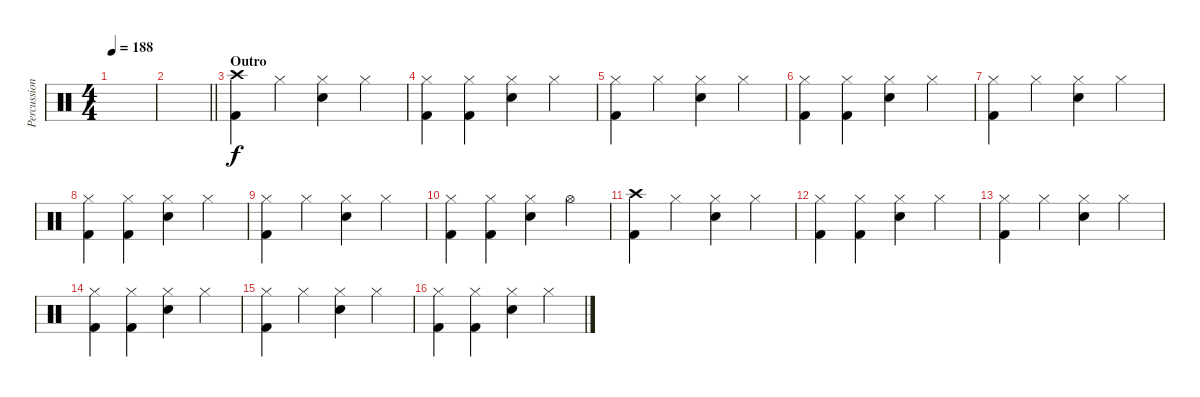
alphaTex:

\track ("Percussion" "Percussion") {instrument percussion}
\staff {score}
\articulation defaults
\ts (4 4)
\tempo 188
\clef neutral
\ks c
|
\barLineRight lightlight
|
\section ("" "Outro")
("Crash high (hit)" "Kick (hit) 2").4 "Hi-Hat (closed)".4 ("Hi-Hat (closed)" "Snare (hit) 2").4 "Hi-Hat (closed)".4 |
("Hi-Hat (closed)" "Kick (hit) 2").4 ("Hi-Hat (closed)" "Kick (hit) 2").4 ("Hi-Hat (closed)" "Snare (hit) 2").4 "Hi-Hat (closed)".4 |
("Hi-Hat (closed)" "Kick (hit) 2").4 "Hi-Hat (closed)".4 ("Hi-Hat (closed)" "Snare (hit) 2").4 "Hi-Hat (closed)".4 |
("Hi-Hat (closed)" "Kick (hit) 2").4 ("Hi-Hat (closed)" "Kick (hit) 2").4 ("Hi-Hat (closed)" "Snare (hit) 2").4 "Hi-Hat (closed)".4 |
("Hi-Hat (closed)" "Kick (hit) 2").4 "Hi-Hat (closed)".4 ("Hi-Hat (closed)" "Snare (hit) 2").4 "Hi-Hat (closed)".4 |
("Hi-Hat (closed)" "Kick (hit) 2").4 ("Hi-Hat (closed)" "Kick (hit) 2").4 ("Hi-Hat (closed)" "Snare (hit) 2").4 "Hi-Hat (closed)".4 |
("Hi-Hat (closed)" "Kick (hit) 2").4 "Hi-Hat (closed)".4 ("Hi-Hat (closed)" "Snare (hit) 2").4 "Hi-Hat (closed)".4 |
("Hi-Hat (closed)" "Kick (hit) 2").4 ("Hi-Hat (closed)" "Kick (hit) 2").4 ("Hi-Hat (closed)" "Snare (hit) 2").4 "Hi-Hat (open)".4 |
("Crash high (hit)" "Kick (hit) 2").4 "Hi-Hat (closed)".4 ("Hi-Hat (closed)" "Snare (hit) 2").4 "Hi-Hat (closed)".4 |
("Hi-Hat (closed)" "Kick (hit) 2").4 ("Hi-Hat (closed)" "Kick (hit) 2").4 ("Hi-Hat (closed)" "Snare (hit) 2").4 "Hi-Hat (closed)".4 |
("Hi-Hat (closed)" "Kick (hit) 2").4 "Hi-Hat (closed)".4 ("Hi-Hat (closed)" "Snare (hit) 2").4 "Hi-Hat (closed)".4 |
("Hi-Hat (closed)" "Kick (hit) 2").4 ("Hi-Hat (closed)" "Kick (hit) 2").4 ("Hi-Hat (closed)" "Snare (hit) 2").4 "Hi-Hat (closed)".4 |
("Hi-Hat (closed)" "Kick (hit) 2").4 "Hi-Hat (closed)".4 ("Hi-Hat (closed)" "Snare (hit) 2").4 "Hi-Hat (closed)".4 |
("Hi-Hat (closed)" "Kick (hit) 2").4 ("Hi-Hat (closed)" "Kick (hit) 2").4 ("Hi-Hat (closed)" "Snare (hit) 2").4 "Hi-Hat (closed)".4
